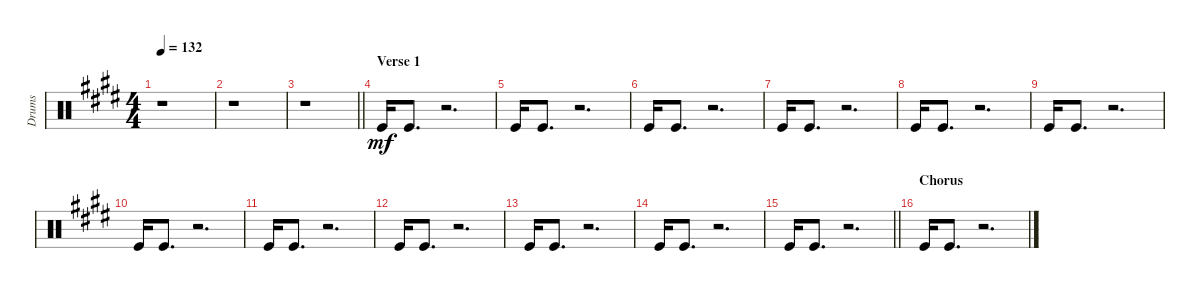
\track ("Drums" "Drums") {instrument percussion}
\staff {score}
\articulation defaults
\ts (4 4)
\tempo 132
\clef neutral
\ks e
r.1{dy mf} |
r.1 |
\barLineRight lightlight
r.1 |
\section ("" "Verse 1")
"Kick (hit)".16 "Kick (hit)".8{d} r.2{d} |
"Kick (hit)".16 "Kick (hit)".8{d} r.2{d} |
"Kick (hit)".16 "Kick (hit)".8{d} r.2{d} |
"Kick (hit)".16 "Kick (hit)".8{d} r.2{d} |
"Kick (hit)".16 "Kick (hit)".8{d} r.2{d} |
"Kick (hit)".16 "Kick (hit)".8{d} r.2{d} |
"Kick (hit)".16 "Kick (hit)".8{d} r.2{d} |
"Kick (hit)".16 "Kick (hit)".8{d} r.2{d} |
"Kick (hit)".16 "Kick (hit)".8{d} r.2{d} |
"Kick (hit)".16 "Kick (hit)".8{d} r.2{d} |
"Kick (hit)".16 "Kick (hit)".8{d} r.2{d} |
\barLineRight lightlight "Kick (hit)".16 "Kick (hit)".8{d}
r.2{d} |
\section ("" "Chorus")
"Kick (hit)".16 "Kick (hit)".8{d} r.2{d}
